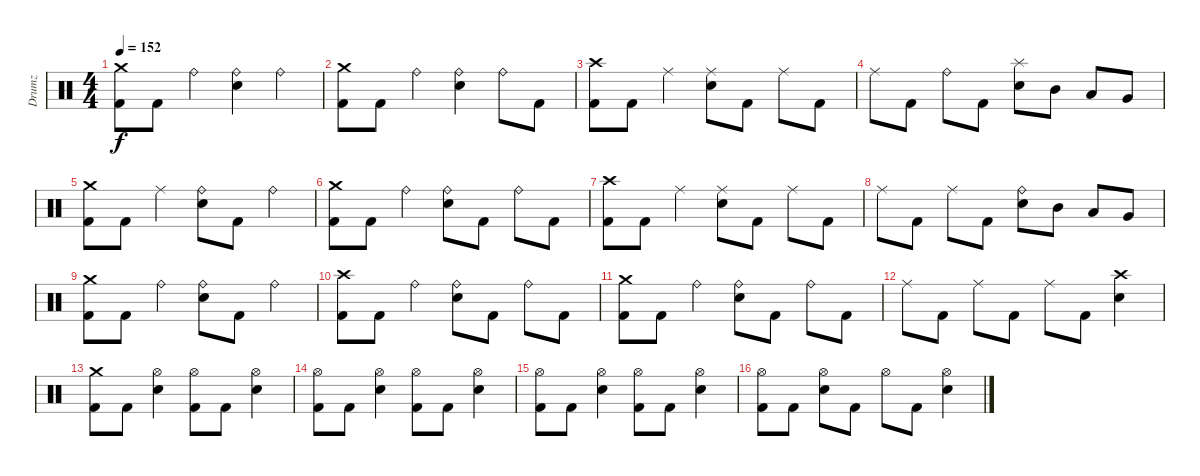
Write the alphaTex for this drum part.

\track ("Drumz" "Drumz") {instrument percussion}
\staff {score}
\articulation defaults
\ts (4 4)
\tempo 152
\clef neutral
\ks c
("Kick (hit) 2" "Crash medium (hit)").8{dy f} "Kick (hit) 2".8 "Ride (bell)".4 ("Snare (hit) 2" "Ride (bell)").4 "Ride (bell)".4 |
("Kick (hit) 2" "Crash medium (hit)").8 "Kick (hit) 2".8 "Ride (bell)".4 ("Snare (hit) 2" "Ride (bell)").4 "Ride (bell)".8 "Kick (hit) 2".8 |
("Kick (hit) 2" "Crash high (hit)").8 "Kick (hit) 2".8 "Ride (middle)".4 ("Snare (hit) 2" "Ride (middle)").8 "Kick (hit) 2".8 "Ride (middle)".8 "Kick (hit) 2".8 |
"Ride (middle)".8 "Kick (hit) 2".8 "Ride (bell)".8 "Kick (hit) 2".8 ("Snare (hit) 2" "Splash (hit)").8 "Mid Tom (hit)".8 "Low Tom (hit)".8 "Very Low Tom (hit)".8 |
("Kick (hit) 2" "Crash medium (hit)").8 "Kick (hit) 2".8 "Ride (middle)".4 ("Snare (hit) 2" "Ride (bell)").8 "Kick (hit) 2".8 "Ride (bell)".4 |
("Kick (hit) 2" "Crash medium (hit)").8 "Kick (hit) 2".8 "Ride (bell)".4 ("Snare (hit) 2" "Ride (bell)").8 "Kick (hit) 2".8 "Ride (bell)".8 "Kick (hit) 2".8 |
("Kick (hit) 2" "Crash high (hit)").8 "Kick (hit) 2".8 "Ride (middle)".4 ("Snare (hit) 2" "Ride (middle)").8 "Kick (hit) 2".8 "Ride (middle)".8 "Kick (hit) 2".8 |
"Ride (middle)".8 "Kick (hit) 2".8 "Ride (middle)".8 "Kick (hit) 2".8 ("Snare (hit) 2" "Ride (bell)").8 "Mid Tom (hit)".8 "Low Tom (hit)".8 "Very Low Tom (hit)".8 |
("Kick (hit) 2" "Crash medium (hit)").8 "Kick (hit) 2".8 "Ride (bell)".4 ("Snare (hit) 2" "Ride (bell)").8 "Kick (hit) 2".8 "Ride (bell)".4 |
("Kick (hit) 2" "Crash high (hit)").8 "Kick (hit) 2".8 "Ride (bell)".4 ("Snare (hit) 2" "Ride (bell)").8 "Kick (hit) 2".8 "Ride (bell)".8 "Kick (hit) 2".8 |
("Kick (hit) 2" "Crash medium (hit)").8 "Kick (hit) 2".8 "Ride (bell)".4 ("Snare (hit) 2" "Ride (bell)").8 "Kick (hit) 2".8 "Ride (bell)".8 "Kick (hit) 2".8 |
"Ride (middle)".8 "Kick (hit) 2".8 "Ride (middle)".8 "Kick (hit) 2".8 "Ride (middle)".8 "Kick (hit) 2".8 ("Snare (hit) 2" "Crash high (hit)").4 |
("Kick (hit) 2" "Crash medium (hit)").8 "Kick (hit) 2".8 ("Snare (hit) 2" "Hi-Hat (open)").4 ("Kick (hit) 2" "Hi-Hat (open)").8 "Kick (hit) 2".8 ("Snare (hit) 2" "Hi-Hat (open)").4 |
("Kick (hit) 2" "Hi-Hat (open)").8 "Kick (hit) 2".8 ("Snare (hit) 2" "Hi-Hat (open)").4 ("Kick (hit) 2" "Hi-Hat (open)").8 "Kick (hit) 2".8 ("Snare (hit) 2" "Hi-Hat (open)").4 |
("Kick (hit) 2" "Hi-Hat (open)").8 "Kick (hit) 2".8 ("Snare (hit) 2" "Hi-Hat (open)").4 ("Kick (hit) 2" "Hi-Hat (open)").8 "Kick (hit) 2".8 ("Snare (hit) 2" "Hi-Hat (open)").4 |
("Kick (hit) 2" "Hi-Hat (open)").8 "Kick (hit) 2".8 ("Snare (hit) 2" "Hi-Hat (open)").8 "Kick (hit) 2".8 "Hi-Hat (open)".8 "Kick (hit) 2".8 ("Snare (hit) 2" "Hi-Hat (open)").4
